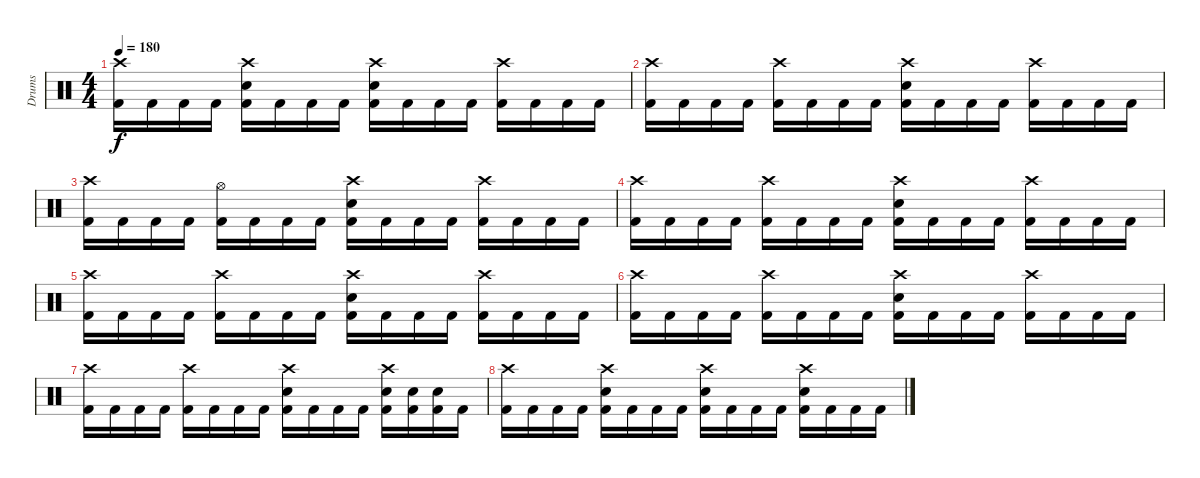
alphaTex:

\track ("Drums" "Drums") {instrument percussion}
\staff {score}
\articulation defaults
\ts (4 4)
\tempo 180
\clef neutral
\ks c
("Crash high (hit)" "Kick (hit) 2").16{dy f} "Kick (hit) 2".16 "Kick (hit) 2".16 "Kick (hit) 2".16 ("Crash high (hit)" "Snare (hit) 2" "Kick (hit) 2").16 "Kick (hit) 2".16 "Kick (hit) 2".16 "Kick (hit) 2".16 ("Crash high (hit)" "Snare (hit) 2" "Kick (hit) 2").16 "Kick (hit) 2".16 "Kick (hit) 2".16 "Kick (hit) 2".16 ("Crash high (hit)" "Kick (hit) 2").16 "Kick (hit) 2".16 "Kick (hit) 2".16 "Kick (hit) 2".16 |
("Crash high (hit)" "Kick (hit) 2").16 "Kick (hit) 2".16 "Kick (hit) 2".16 "Kick (hit) 2".16 ("Crash high (hit)" "Kick (hit) 2").16 "Kick (hit) 2".16 "Kick (hit) 2".16 "Kick (hit) 2".16 ("Crash high (hit)" "Snare (hit) 2" "Kick (hit) 2").16 "Kick (hit) 2".16 "Kick (hit) 2".16 "Kick (hit) 2".16 ("Crash high (hit)" "Kick (hit) 2").16 "Kick (hit) 2".16 "Kick (hit) 2".16 "Kick (hit) 2".16 |
("Crash high (hit)" "Kick (hit) 2").16 "Kick (hit) 2".16 "Kick (hit) 2".16 "Kick (hit) 2".16 ("Hi-Hat (open)" "Kick (hit) 2").16 "Kick (hit) 2".16 "Kick (hit) 2".16 "Kick (hit) 2".16 ("Crash high (hit)" "Snare (hit) 2" "Kick (hit) 2").16 "Kick (hit) 2".16 "Kick (hit) 2".16 "Kick (hit) 2".16 ("Crash high (hit)" "Kick (hit) 2").16 "Kick (hit) 2".16 "Kick (hit) 2".16 "Kick (hit) 2".16 |
("Crash high (hit)" "Kick (hit) 2").16 "Kick (hit) 2".16 "Kick (hit) 2".16 "Kick (hit) 2".16 ("Crash high (hit)" "Kick (hit) 2").16 "Kick (hit) 2".16 "Kick (hit) 2".16 "Kick (hit) 2".16 ("Crash high (hit)" "Snare (hit) 2" "Kick (hit) 2").16 "Kick (hit) 2".16 "Kick (hit) 2".16 "Kick (hit) 2".16 ("Crash high (hit)" "Kick (hit) 2").16 "Kick (hit) 2".16 "Kick (hit) 2".16 "Kick (hit) 2".16 |
("Crash high (hit)" "Kick (hit) 2").16 "Kick (hit) 2".16 "Kick (hit) 2".16 "Kick (hit) 2".16 ("Crash high (hit)" "Kick (hit) 2").16 "Kick (hit) 2".16 "Kick (hit) 2".16 "Kick (hit) 2".16 ("Crash high (hit)" "Snare (hit) 2" "Kick (hit) 2").16 "Kick (hit) 2".16 "Kick (hit) 2".16 "Kick (hit) 2".16 ("Crash high (hit)" "Kick (hit) 2").16 "Kick (hit) 2".16 "Kick (hit) 2".16 "Kick (hit) 2".16 |
("Crash high (hit)" "Kick (hit) 2").16 "Kick (hit) 2".16 "Kick (hit) 2".16 "Kick (hit) 2".16 ("Crash high (hit)" "Kick (hit) 2").16 "Kick (hit) 2".16 "Kick (hit) 2".16 "Kick (hit) 2".16 ("Crash high (hit)" "Snare (hit) 2" "Kick (hit) 2").16 "Kick (hit) 2".16 "Kick (hit) 2".16 "Kick (hit) 2".16 ("Crash high (hit)" "Kick (hit) 2").16 "Kick (hit) 2".16 "Kick (hit) 2".16 "Kick (hit) 2".16 |
("Crash high (hit)" "Kick (hit) 2").16 "Kick (hit) 2".16 "Kick (hit) 2".16 "Kick (hit) 2".16 ("Crash high (hit)" "Kick (hit) 2").16 "Kick (hit) 2".16 "Kick (hit) 2".16 "Kick (hit) 2".16 ("Crash high (hit)" "Snare (hit) 2" "Kick (hit) 2").16 "Kick (hit) 2".16 "Kick (hit) 2".16 "Kick (hit) 2".16 ("Crash high (hit)" "Snare (hit) 2" "Kick (hit) 2").16 ("Snare (hit) 2" "Kick (hit) 2").16 ("Snare (hit) 2" "Kick (hit) 2").16 "Kick (hit) 2".16 |
("Crash high (hit)" "Kick (hit) 2").16 "Kick (hit) 2".16 "Kick (hit) 2".16 "Kick (hit) 2".16 ("Crash high (hit)" "Snare (hit) 2" "Kick (hit) 2").16 "Kick (hit) 2".16 "Kick (hit) 2".16 "Kick (hit) 2".16 ("Crash high (hit)" "Snare (hit) 2" "Kick (hit) 2").16 "Kick (hit) 2".16 "Kick (hit) 2".16 "Kick (hit) 2".16 ("Crash high (hit)" "Snare (hit) 2" "Kick (hit) 2").16 "Kick (hit) 2".16 "Kick (hit) 2".16 "Kick (hit) 2".16
